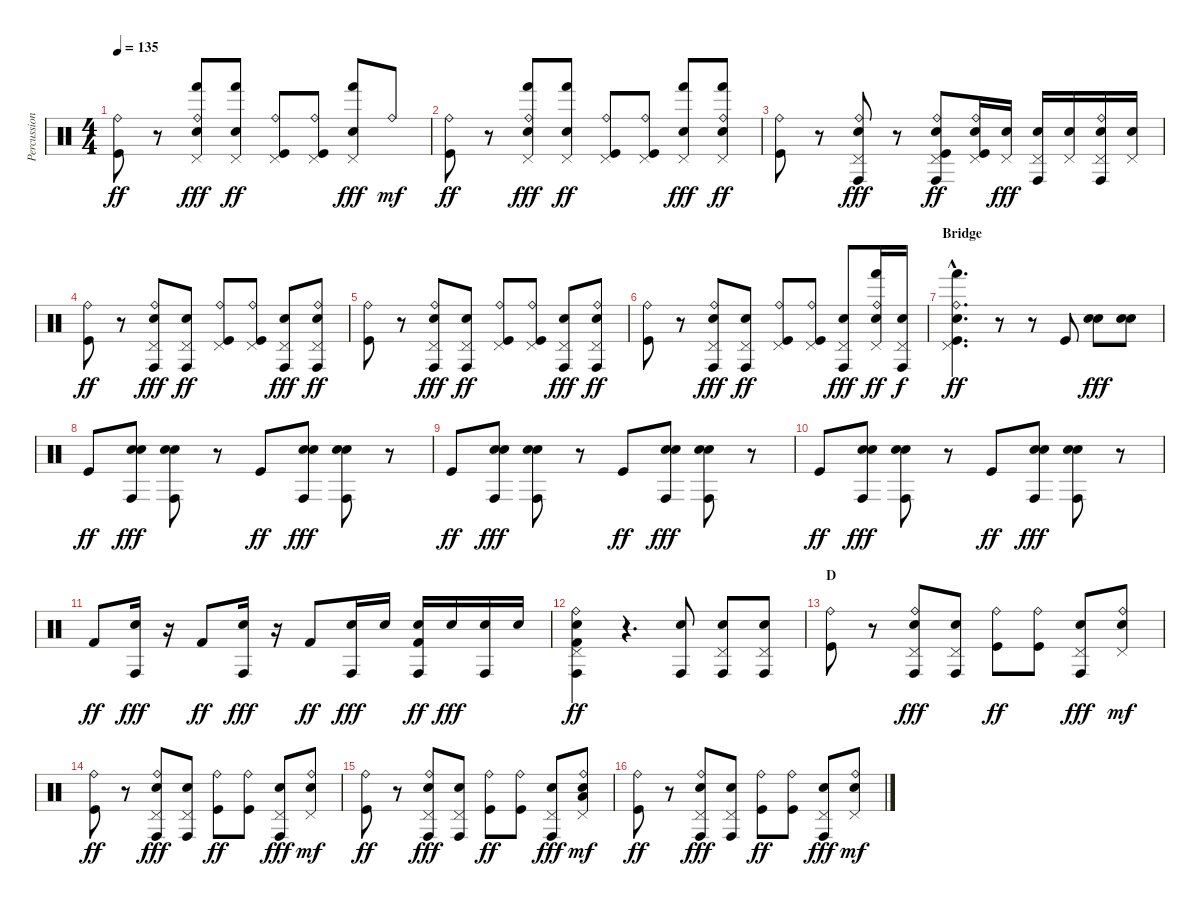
\track ("Percussion" "Percussion") {instrument percussion}
\staff {score}
\articulation defaults
\ts (4 4)
\tempo 135
\clef neutral
\ks c
("Ride (bell)" "Kick (hit)").8{dy ff} r.8 ("Ride (bell)" "Pedal Hi-Hat (hit)" "Hand (hit)" "Electric Snare (hit)").8{dy fff} ("Pedal Hi-Hat (hit)" "Hand (hit)" "Electric Snare (hit)").8{dy ff} ("Ride (bell)" "Pedal Hi-Hat (hit)" "Kick (hit)").8 ("Ride (bell)" "Pedal Hi-Hat (hit)" "Kick (hit)").8 ("Pedal Hi-Hat (hit)" "Hand (hit)" "Electric Snare (hit)").8{dy fff} "Ride (bell)".8{dy mf} |
("Ride (bell)" "Kick (hit)").8{dy ff} r.8 ("Ride (bell)" "Pedal Hi-Hat (hit)" "Hand (hit)" "Electric Snare (hit)").8{dy fff} ("Pedal Hi-Hat (hit)" "Hand (hit)" "Electric Snare (hit)").8{dy ff} ("Ride (bell)" "Pedal Hi-Hat (hit)" "Kick (hit)").8 ("Ride (bell)" "Pedal Hi-Hat (hit)" "Kick (hit)").8 ("Pedal Hi-Hat (hit)" "Hand (hit)" "Electric Snare (hit)").8{dy fff} ("Ride (bell)" "Pedal Hi-Hat (hit)" "Hand (hit)" "Electric Snare (hit)").8{dy ff} |
("Ride (bell)" "Kick (hit)").8 r.8 ("Ride (bell)" "Pedal Hi-Hat (hit)" "Conga high (hit)" "Electric Snare (hit)").8{dy fff} r.8 ("Ride (bell)" "Pedal Hi-Hat (hit)" "Conga high (hit)" "Electric Snare (hit)" "Kick (hit)").8{dy ff} ("Ride (bell)" "Pedal Hi-Hat (hit)" "Electric Snare (hit)" "Kick (hit)").16 ("Pedal Hi-Hat (hit)" "Electric Snare (hit)").16{dy fff} ("Pedal Hi-Hat (hit)" "Conga high (hit)" "Electric Snare (hit)").16 ("Pedal Hi-Hat (hit)" "Electric Snare (hit)").16 ("Ride (bell)" "Pedal Hi-Hat (hit)" "Conga high (hit)" "Electric Snare (hit)").16 ("Pedal Hi-Hat (hit)" "Electric Snare (hit)").16 |
("Ride (bell)" "Kick (hit)").8{dy ff} r.8 ("Ride (bell)" "Pedal Hi-Hat (hit)" "Conga high (hit)" "Electric Snare (hit)").8{dy fff} ("Pedal Hi-Hat (hit)" "Conga high (hit)" "Electric Snare (hit)").8{dy ff} ("Ride (bell)" "Pedal Hi-Hat (hit)" "Kick (hit)").8 ("Ride (bell)" "Pedal Hi-Hat (hit)" "Kick (hit)").8 ("Pedal Hi-Hat (hit)" "Conga high (hit)" "Electric Snare (hit)").8{dy fff} ("Ride (bell)" "Pedal Hi-Hat (hit)" "Conga high (hit)" "Electric Snare (hit)").8{dy ff} |
("Ride (bell)" "Kick (hit)").8 r.8 ("Ride (bell)" "Pedal Hi-Hat (hit)" "Conga high (hit)" "Electric Snare (hit)").8{dy fff} ("Pedal Hi-Hat (hit)" "Conga high (hit)" "Electric Snare (hit)").8{dy ff} ("Ride (bell)" "Pedal Hi-Hat (hit)" "Kick (hit)").8 ("Ride (bell)" "Pedal Hi-Hat (hit)" "Kick (hit)").8 ("Pedal Hi-Hat (hit)" "Conga high (hit)" "Electric Snare (hit)").8{dy fff} ("Ride (bell)" "Pedal Hi-Hat (hit)" "Conga high (hit)" "Electric Snare (hit)").8{dy ff} |
("Ride (bell)" "Kick (hit)").8 r.8 ("Ride (bell)" "Pedal Hi-Hat (hit)" "Conga high (hit)" "Electric Snare (hit)").8{dy fff} ("Pedal Hi-Hat (hit)" "Conga high (hit)" "Electric Snare (hit)").8{dy ff} ("Ride (bell)" "Pedal Hi-Hat (hit)" "Kick (hit)").8 ("Ride (bell)" "Pedal Hi-Hat (hit)" "Kick (hit)").8 ("Pedal Hi-Hat (hit)" "Conga high (hit)" "Electric Snare (hit)").8{dy fff} ("Ride (bell)" "Pedal Hi-Hat (hit)" "Hand (hit)" "Electric Snare (hit)").16{dy ff} ("Pedal Hi-Hat (hit)" "Conga high (hit)" "Electric Snare (hit)").16{dy f} |
\section ("" "Bridge")
("Ride (bell)"{hac} "Pedal Hi-Hat (hit)"{hac} "Hand (hit)"{hac} "Electric Snare (hit)"{hac} "Kick (hit)"{hac}).4{d dy ff} r.8 r.8 "Kick (hit)".8 ("Snare (hit) 2" "Electric Snare (hit)").8{dy fff} ("Snare (hit) 2" "Electric Snare (hit)").8 |
"Kick (hit)".8{dy ff} ("Hand Clap (hit)" "Conga high (hit)" "Electric Snare (hit)").8{dy fff} ("Hand Clap (hit)" "Conga high (hit)" "Electric Snare (hit)").8 r.8 "Kick (hit)".8{dy ff} ("Hand Clap (hit)" "Conga high (hit)" "Electric Snare (hit)").8{dy fff} ("Hand Clap (hit)" "Conga high (hit)" "Electric Snare (hit)").8 r.8 |
"Kick (hit)".8{dy ff} ("Hand Clap (hit)" "Conga high (hit)" "Electric Snare (hit)").8{dy fff} ("Hand Clap (hit)" "Conga high (hit)" "Electric Snare (hit)").8 r.8 "Kick (hit)".8{dy ff} ("Hand Clap (hit)" "Conga high (hit)" "Electric Snare (hit)").8{dy fff} ("Hand Clap (hit)" "Conga high (hit)" "Electric Snare (hit)").8 r.8 |
"Kick (hit)".8{dy ff} ("Hand Clap (hit)" "Conga high (hit)" "Electric Snare (hit)").8{dy fff} ("Hand Clap (hit)" "Conga high (hit)" "Electric Snare (hit)").8 r.8 "Kick (hit)".8{dy ff} ("Hand Clap (hit)" "Conga high (hit)" "Electric Snare (hit)").8{dy fff} ("Hand Clap (hit)" "Conga high (hit)" "Electric Snare (hit)").8 r.8 |
"Kick (hit) 2".8{dy ff} ("Conga high (hit)" "Electric Snare (hit)").16{dy fff} r.16 "Kick (hit) 2".8{dy ff} ("Conga high (hit)" "Electric Snare (hit)").16{dy fff} r.16 "Kick (hit) 2".8{dy ff} ("Conga high (hit)" "Electric Snare (hit)").16{dy fff} "Electric Snare (hit)".16 ("Conga high (hit)" "Electric Snare (hit)" "Kick (hit) 2").16{dy ff} "Electric Snare (hit)".16{dy fff} ("Conga high (hit)" "Electric Snare (hit)").16 "Electric Snare (hit)".16 |
("Ride (bell)" "Pedal Hi-Hat (hit)" "Conga high (hit)" "Electric Snare (hit)" "Kick (hit) 2").4{dy ff} r.4{d} ("Electric Snare (hit)" "Conga high (hit)").8 ("Pedal Hi-Hat (hit)" "Electric Snare (hit)" "Conga high (hit)").8 ("Pedal Hi-Hat (hit)" "Electric Snare (hit)" "Conga high (hit)").8 |
\section ("" "D")
("Ride (bell)" "Kick (hit)").8 r.8 ("Ride (bell)" "Pedal Hi-Hat (hit)" "Conga high (hit)" "Electric Snare (hit)").8{dy fff} ("Pedal Hi-Hat (hit)" "Conga high (hit)" "Electric Snare (hit)").8 ("Ride (bell)" "Kick (hit)").8{dy ff} ("Ride (bell)" "Kick (hit)").8 ("Pedal Hi-Hat (hit)" "Conga high (hit)" "Electric Snare (hit)").8{dy fff} ("Ride (bell)" "Pedal Hi-Hat (hit)" "Electric Snare (hit)").8{dy mf} |
("Ride (bell)" "Kick (hit)").8{dy ff} r.8 ("Ride (bell)" "Pedal Hi-Hat (hit)" "Conga high (hit)" "Electric Snare (hit)").8{dy fff} ("Pedal Hi-Hat (hit)" "Conga high (hit)" "Electric Snare (hit)").8 ("Ride (bell)" "Kick (hit)").8{dy ff} ("Ride (bell)" "Kick (hit)").8 ("Pedal Hi-Hat (hit)" "Conga high (hit)" "Electric Snare (hit)").8{dy fff} ("Ride (bell)" "Pedal Hi-Hat (hit)" "Electric Snare (hit)").8{dy mf} |
("Ride (bell)" "Kick (hit)").8{dy ff} r.8 ("Ride (bell)" "Pedal Hi-Hat (hit)" "Conga high (hit)" "Electric Snare (hit)").8{dy fff} ("Pedal Hi-Hat (hit)" "Conga high (hit)" "Electric Snare (hit)").8 ("Ride (bell)" "Kick (hit)").8{dy ff} ("Ride (bell)" "Kick (hit)").8 ("Pedal Hi-Hat (hit)" "Conga high (hit)" "Electric Snare (hit)").8{dy fff} ("Ride (bell)" "Pedal Hi-Hat (hit)" "Low Tom (hit)" "Electric Snare (hit)").8{dy mf} |
("Ride (bell)" "Kick (hit)").8{dy ff} r.8 ("Ride (bell)" "Pedal Hi-Hat (hit)" "Conga high (hit)" "Electric Snare (hit)").8{dy fff} ("Pedal Hi-Hat (hit)" "Conga high (hit)" "Electric Snare (hit)").8 ("Ride (bell)" "Kick (hit)").8{dy ff} ("Ride (bell)" "Kick (hit)").8 ("Pedal Hi-Hat (hit)" "Conga high (hit)" "Electric Snare (hit)").8{dy fff} ("Ride (bell)" "Pedal Hi-Hat (hit)" "Electric Snare (hit)").8{dy mf}
